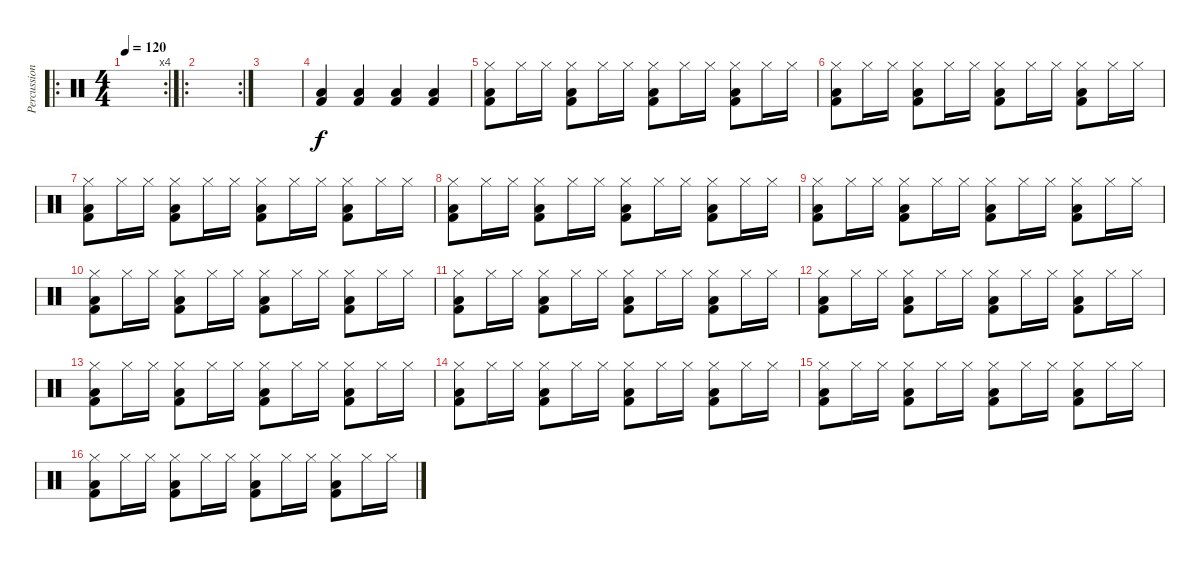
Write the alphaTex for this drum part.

\track ("Percussions" "Percussion") {instrument percussion}
\staff {score}
\articulation defaults
\ro
\rc 4
\ts (4 4)
\tempo 120
\clef neutral
\ks c
|
\ro
\rc 2
|
|
("Kick (hit) 2" "Low Floor Tom (hit)").4 ("Kick (hit) 2" "Low Floor Tom (hit)").4 ("Kick (hit) 2" "Low Floor Tom (hit)").4 ("Kick (hit) 2" "Low Floor Tom (hit)").4 |
("Hi-Hat (closed)" "Kick (hit) 2" "Low Floor Tom (hit)").8 "Hi-Hat (closed)".16 "Hi-Hat (closed)".16 ("Hi-Hat (closed)" "Kick (hit) 2" "Low Floor Tom (hit)").8 "Hi-Hat (closed)".16 "Hi-Hat (closed)".16 ("Hi-Hat (closed)" "Kick (hit) 2" "Low Floor Tom (hit)").8 "Hi-Hat (closed)".16 "Hi-Hat (closed)".16 ("Hi-Hat (closed)" "Kick (hit) 2" "Low Floor Tom (hit)").8 "Hi-Hat (closed)".16 "Hi-Hat (closed)".16 |
("Hi-Hat (closed)" "Kick (hit) 2" "Low Floor Tom (hit)").8 "Hi-Hat (closed)".16 "Hi-Hat (closed)".16 ("Hi-Hat (closed)" "Kick (hit) 2" "Low Floor Tom (hit)").8 "Hi-Hat (closed)".16 "Hi-Hat (closed)".16 ("Hi-Hat (closed)" "Kick (hit) 2" "Low Floor Tom (hit)").8 "Hi-Hat (closed)".16 "Hi-Hat (closed)".16 ("Hi-Hat (closed)" "Kick (hit) 2" "Low Floor Tom (hit)").8 "Hi-Hat (closed)".16 "Hi-Hat (closed)".16 |
("Hi-Hat (closed)" "Kick (hit) 2" "Low Floor Tom (hit)").8 "Hi-Hat (closed)".16 "Hi-Hat (closed)".16 ("Hi-Hat (closed)" "Kick (hit) 2" "Low Floor Tom (hit)").8 "Hi-Hat (closed)".16 "Hi-Hat (closed)".16 ("Hi-Hat (closed)" "Kick (hit) 2" "Low Floor Tom (hit)").8 "Hi-Hat (closed)".16 "Hi-Hat (closed)".16 ("Hi-Hat (closed)" "Kick (hit) 2" "Low Floor Tom (hit)").8 "Hi-Hat (closed)".16 "Hi-Hat (closed)".16 |
("Hi-Hat (closed)" "Kick (hit) 2" "Low Floor Tom (hit)").8 "Hi-Hat (closed)".16 "Hi-Hat (closed)".16 ("Hi-Hat (closed)" "Kick (hit) 2" "Low Floor Tom (hit)").8 "Hi-Hat (closed)".16 "Hi-Hat (closed)".16 ("Hi-Hat (closed)" "Kick (hit) 2" "Low Floor Tom (hit)").8 "Hi-Hat (closed)".16 "Hi-Hat (closed)".16 ("Hi-Hat (closed)" "Kick (hit) 2" "Low Floor Tom (hit)").8 "Hi-Hat (closed)".16 "Hi-Hat (closed)".16 |
("Hi-Hat (closed)" "Kick (hit) 2" "Low Floor Tom (hit)").8 "Hi-Hat (closed)".16 "Hi-Hat (closed)".16 ("Hi-Hat (closed)" "Kick (hit) 2" "Low Floor Tom (hit)").8 "Hi-Hat (closed)".16 "Hi-Hat (closed)".16 ("Hi-Hat (closed)" "Kick (hit) 2" "Low Floor Tom (hit)").8 "Hi-Hat (closed)".16 "Hi-Hat (closed)".16 ("Hi-Hat (closed)" "Kick (hit) 2" "Low Floor Tom (hit)").8 "Hi-Hat (closed)".16 "Hi-Hat (closed)".16 |
("Hi-Hat (closed)" "Kick (hit) 2" "Low Floor Tom (hit)").8 "Hi-Hat (closed)".16 "Hi-Hat (closed)".16 ("Hi-Hat (closed)" "Kick (hit) 2" "Low Floor Tom (hit)").8 "Hi-Hat (closed)".16 "Hi-Hat (closed)".16 ("Hi-Hat (closed)" "Kick (hit) 2" "Low Floor Tom (hit)").8 "Hi-Hat (closed)".16 "Hi-Hat (closed)".16 ("Hi-Hat (closed)" "Kick (hit) 2" "Low Floor Tom (hit)").8 "Hi-Hat (closed)".16 "Hi-Hat (closed)".16 |
("Hi-Hat (closed)" "Kick (hit) 2" "Low Floor Tom (hit)").8 "Hi-Hat (closed)".16 "Hi-Hat (closed)".16 ("Hi-Hat (closed)" "Kick (hit) 2" "Low Floor Tom (hit)").8 "Hi-Hat (closed)".16 "Hi-Hat (closed)".16 ("Hi-Hat (closed)" "Kick (hit) 2" "Low Floor Tom (hit)").8 "Hi-Hat (closed)".16 "Hi-Hat (closed)".16 ("Hi-Hat (closed)" "Kick (hit) 2" "Low Floor Tom (hit)").8 "Hi-Hat (closed)".16 "Hi-Hat (closed)".16 |
("Hi-Hat (closed)" "Kick (hit) 2" "Low Floor Tom (hit)").8 "Hi-Hat (closed)".16 "Hi-Hat (closed)".16 ("Hi-Hat (closed)" "Kick (hit) 2" "Low Floor Tom (hit)").8 "Hi-Hat (closed)".16 "Hi-Hat (closed)".16 ("Hi-Hat (closed)" "Kick (hit) 2" "Low Floor Tom (hit)").8 "Hi-Hat (closed)".16 "Hi-Hat (closed)".16 ("Hi-Hat (closed)" "Kick (hit) 2" "Low Floor Tom (hit)").8 "Hi-Hat (closed)".16 "Hi-Hat (closed)".16 |
("Hi-Hat (closed)" "Kick (hit) 2" "Low Floor Tom (hit)").8 "Hi-Hat (closed)".16 "Hi-Hat (closed)".16 ("Hi-Hat (closed)" "Kick (hit) 2" "Low Floor Tom (hit)").8 "Hi-Hat (closed)".16 "Hi-Hat (closed)".16 ("Hi-Hat (closed)" "Kick (hit) 2" "Low Floor Tom (hit)").8 "Hi-Hat (closed)".16 "Hi-Hat (closed)".16 ("Hi-Hat (closed)" "Kick (hit) 2" "Low Floor Tom (hit)").8 "Hi-Hat (closed)".16 "Hi-Hat (closed)".16 |
("Hi-Hat (closed)" "Kick (hit) 2" "Low Floor Tom (hit)").8 "Hi-Hat (closed)".16 "Hi-Hat (closed)".16 ("Hi-Hat (closed)" "Kick (hit) 2" "Low Floor Tom (hit)").8 "Hi-Hat (closed)".16 "Hi-Hat (closed)".16 ("Hi-Hat (closed)" "Kick (hit) 2" "Low Floor Tom (hit)").8 "Hi-Hat (closed)".16 "Hi-Hat (closed)".16 ("Hi-Hat (closed)" "Kick (hit) 2" "Low Floor Tom (hit)").8 "Hi-Hat (closed)".16 "Hi-Hat (closed)".16 |
("Hi-Hat (closed)" "Kick (hit) 2" "Low Floor Tom (hit)").8 "Hi-Hat (closed)".16 "Hi-Hat (closed)".16 ("Hi-Hat (closed)" "Kick (hit) 2" "Low Floor Tom (hit)").8 "Hi-Hat (closed)".16 "Hi-Hat (closed)".16 ("Hi-Hat (closed)" "Kick (hit) 2" "Low Floor Tom (hit)").8 "Hi-Hat (closed)".16 "Hi-Hat (closed)".16 ("Hi-Hat (closed)" "Kick (hit) 2" "Low Floor Tom (hit)").8 "Hi-Hat (closed)".16 "Hi-Hat (closed)".16 |
("Hi-Hat (closed)" "Kick (hit) 2" "Low Floor Tom (hit)").8 "Hi-Hat (closed)".16 "Hi-Hat (closed)".16 ("Hi-Hat (closed)" "Kick (hit) 2" "Low Floor Tom (hit)").8 "Hi-Hat (closed)".16 "Hi-Hat (closed)".16 ("Hi-Hat (closed)" "Kick (hit) 2" "Low Floor Tom (hit)").8 "Hi-Hat (closed)".16 "Hi-Hat (closed)".16 ("Hi-Hat (closed)" "Kick (hit) 2" "Low Floor Tom (hit)").8 "Hi-Hat (closed)".16 "Hi-Hat (closed)".16
